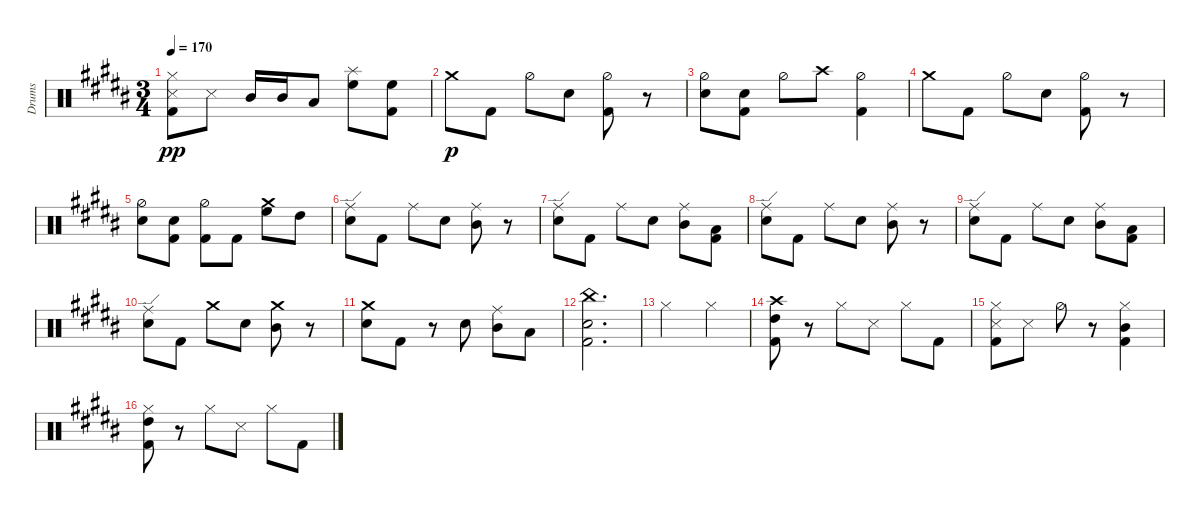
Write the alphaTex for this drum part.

\defaultSystemsLayout 4
\bracketExtendMode groupsimilarinstruments
\otherSystemsTrackNameOrientation horizontal
\track ("Drumkit" "Drums") {instrument percussion}
\staff {score}
\articulation defaults
\ts (3 4)
\tempo 170
\clef neutral
\ks b
("Hi-Hat (closed)"{acc bb} "Snare (side stick) 3"{acc bb} "Kick (hit) 2"{acc bb}).8{dy pp beam Down} "Snare (side stick) 3"{acc bb}.8{beam Down} "Mid Tom (hit)"{acc bb}.16{beam Up} "Mid Tom (hit)"{acc bb}.16{beam Up} "Low Tom (hit)"{acc bb}.8{beam Up} ("High Floor Tom (hit)"{acc bb} "Splash (hit)"{acc bb}).8{beam Down} ("High Floor Tom (hit)"{acc bb} "Kick (hit) 2"{acc bb}).8{beam Down} |
"Crash medium (hit)"{acc bb}.8{dy p beam Down} "Kick (hit) 2"{acc bb}.8{beam Down} "Hi-Hat (half)"{acc bb}.8{beam Down} "Snare (hit) 2"{acc bb}.8{beam Down} ("Hi-Hat (half)"{acc bb} "Kick (hit) 2"{acc bb}).8{beam Down} r.8{beam Down} |
("Hi-Hat (half)"{acc bb} "Snare (hit) 2"{acc bb}).8{beam Down} ("Snare (hit) 2"{acc bb} "Kick (hit) 2"{acc bb}).8{beam Down} "Hi-Hat (half)"{acc bb}.8{beam Down} "Crash high (hit)"{acc bb}.8{beam Down} ("Hi-Hat (half)"{acc bb} "Kick (hit) 2"{acc bb}).4{beam Down} |
"Crash medium (hit)"{acc bb}.8{beam Down} "Kick (hit) 2"{acc bb}.8{beam Down} "Hi-Hat (half)"{acc bb}.8{beam Down} "Snare (hit) 2"{acc bb}.8{beam Down} ("Hi-Hat (half)"{acc bb} "Kick (hit) 2"{acc bb}).8{beam Down} r.8{beam Down} |
("Hi-Hat (half)"{acc bb} "Snare (hit) 2"{acc bb}).8{beam Down} ("Snare (hit) 2"{acc bb} "Kick (hit) 2"{acc bb}).8{beam Down} ("Hi-Hat (half)"{acc bb} "Kick (hit) 2"{acc bb}).8{beam Down} "Kick (hit) 2"{acc bb}.8{beam Down} ("High Floor Tom (hit)"{acc bb} "Crash medium (hit)"{acc bb}).8{beam Down} "High Tom (hit)"{acc bb}.8{beam Down} |
("Snare (hit) 2"{acc bb} "Ride (edge)"{acc bb}).8{beam Down} "Kick (hit) 2"{acc bb}.8{beam Down} "Ride (middle)"{acc bb}.8{beam Down} "Snare (hit) 2"{acc bb}.8{beam Down} ("Mid Tom (hit)"{acc bb} "Ride (middle)"{acc bb}).8{beam Down} r.8{beam Down} |
("Snare (hit) 2"{acc bb} "Ride (edge)"{acc bb}).8{beam Down} "Kick (hit) 2"{acc bb}.8{beam Down} "Ride (middle)"{acc bb}.8{beam Down} "Snare (hit) 2"{acc bb}.8{beam Down} ("Mid Tom (hit)"{acc bb} "Ride (middle)"{acc bb}).8{beam Down} ("Low Tom (hit)"{acc bb} "Kick (hit) 2"{acc bb}).8{beam Down} |
("Ride (edge)"{acc bb} "Snare (hit) 2"{acc bb}).8{beam Down} "Kick (hit) 2"{acc bb}.8{beam Down} "Ride (middle)"{acc bb}.8{beam Down} "Snare (hit) 2"{acc bb}.8{beam Down} ("Mid Tom (hit)"{acc bb} "Ride (middle)"{acc bb}).8{beam Down} r.8{beam Down} |
("Ride (edge)"{acc bb} "Snare (hit) 2"{acc bb}).8{beam Down} "Kick (hit) 2"{acc bb}.8{beam Down} "Ride (middle)"{acc bb}.8{beam Down} "Snare (hit) 2"{acc bb}.8{beam Down} ("Mid Tom (hit)"{acc bb} "Ride (middle)"{acc bb}).8{beam Down} ("Low Tom (hit)"{acc bb} "Kick (hit) 2"{acc bb}).8{beam Down} |
("Snare (hit) 2"{acc bb} "Ride (edge)"{acc bb}).8{beam Down} "Kick (hit) 2"{acc bb}.8{beam Down} "Crash medium (hit)"{acc bb}.8{beam Down} "Snare (hit) 2"{acc bb}.8{beam Down} ("Mid Tom (hit)"{acc bb} "Crash medium (hit)"{acc bb}).8{beam Down} r.8{beam Down} |
("Snare (hit) 2"{acc bb} "Crash medium (hit)"{acc bb}).8{beam Down} "Kick (hit) 2"{acc bb}.8{beam Down} r.8{beam Down} "Snare (hit) 2"{acc bb}.8{beam Down} ("Mid Tom (hit)"{acc bb} "Ride (middle)"{acc bb}).8{beam Down} "Low Tom (hit)"{acc bb}.8{beam Down} |
("Snare (hit) 2"{acc bb} "Kick (hit) 2"{acc bb} "China (hit)"{acc bb}).2{d beam Down} |
"Hi-Hat (closed)"{acc bb}.2{beam Down} "Hi-Hat (closed)"{acc bb}.4{beam Down} |
("High Tom (hit)"{acc bb} "Kick (hit) 2"{acc bb} "Crash high (hit)"{acc bb}).8{beam Down} r.8{beam Down} "Hi-Hat (closed)"{acc bb}.8{beam Down} "Snare (side stick) 3"{acc bb}.8{beam Down} "Hi-Hat (closed)"{acc bb}.8{beam Down} "Kick (hit) 2"{acc bb}.8{beam Down} |
("Hi-Hat (closed)"{acc bb} "Snare (side stick) 3"{acc bb} "Kick (hit) 2"{acc bb}).8{beam Down} "Snare (side stick) 3"{acc bb}.8{beam Down} "Hi-Hat (half)"{acc bb}.8{beam Down} r.8{beam Down} ("Hi-Hat (closed)"{acc bb} "Kick (hit) 2"{acc bb} "Mid Tom (hit)"{acc bb}).4{beam Down} |
("High Tom (hit)"{acc bb} "Kick (hit) 2"{acc bb} "Hi-Hat (closed)"{acc bb}).8{beam Down} r.8{beam Down} "Hi-Hat (closed)"{acc bb}.8{beam Down} "Snare (side stick) 3"{acc bb}.8{beam Down} "Hi-Hat (closed)"{acc bb}.8{beam Down} "Kick (hit) 2"{acc bb}.8{beam Down}
